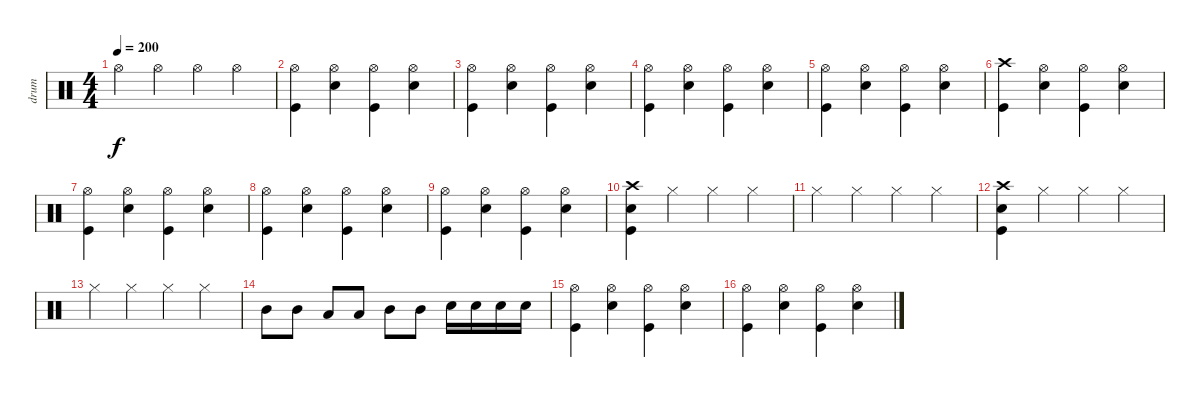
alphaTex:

\track ("drum" "drum") {instrument percussion}
\staff {score}
\articulation defaults
\ts (4 4)
\tempo 200
\clef neutral
\ks c "Hi-Hat (open)".4{dy f} "Hi-Hat (open)".4 "Hi-Hat (open)".4 "Hi-Hat (open)".4
|
("Hi-Hat (open)" "Kick (hit)").4 ("Hi-Hat (open)" "Snare (hit) 2").4 ("Hi-Hat (open)" "Kick (hit)").4 ("Hi-Hat (open)" "Snare (hit) 2").4 |
("Hi-Hat (open)" "Kick (hit)").4 ("Hi-Hat (open)" "Snare (hit) 2").4 ("Hi-Hat (open)" "Kick (hit)").4 ("Hi-Hat (open)" "Snare (hit) 2").4 |
("Hi-Hat (open)" "Kick (hit)").4 ("Hi-Hat (open)" "Snare (hit) 2").4 ("Hi-Hat (open)" "Kick (hit)").4 ("Hi-Hat (open)" "Snare (hit) 2").4 |
("Hi-Hat (open)" "Kick (hit)").4 ("Hi-Hat (open)" "Snare (hit) 2").4 ("Hi-Hat (open)" "Kick (hit)").4 ("Hi-Hat (open)" "Snare (hit) 2").4 |
("Crash high (hit)" "Kick (hit)").4 ("Hi-Hat (open)" "Snare (hit) 2").4 ("Hi-Hat (open)" "Kick (hit)").4 ("Hi-Hat (open)" "Snare (hit) 2").4 |
("Hi-Hat (open)" "Kick (hit)").4 ("Hi-Hat (open)" "Snare (hit) 2").4 ("Hi-Hat (open)" "Kick (hit)").4 ("Hi-Hat (open)" "Snare (hit) 2").4 |
("Hi-Hat (open)" "Kick (hit)").4 ("Hi-Hat (open)" "Snare (hit) 2").4 ("Hi-Hat (open)" "Kick (hit)").4 ("Hi-Hat (open)" "Snare (hit) 2").4 |
("Hi-Hat (open)" "Kick (hit)").4 ("Hi-Hat (open)" "Snare (hit) 2").4 ("Hi-Hat (open)" "Kick (hit)").4 ("Hi-Hat (open)" "Snare (hit) 2").4 |
("Crash high (hit)" "Snare (hit) 2" "Kick (hit)").4 "Hi-Hat (closed)".4 "Hi-Hat (closed)".4 "Hi-Hat (closed)".4 |
"Hi-Hat (closed)".4 "Hi-Hat (closed)".4 "Hi-Hat (closed)".4 "Hi-Hat (closed)".4 |
("Crash high (hit)" "Snare (hit) 2" "Kick (hit)").4 "Hi-Hat (closed)".4 "Hi-Hat (closed)".4 "Hi-Hat (closed)".4 |
"Hi-Hat (closed)".4 "Hi-Hat (closed)".4 "Hi-Hat (closed)".4 "Hi-Hat (closed)".4 |
"Mid Tom (hit)".8 "Mid Tom (hit)".8 "Low Tom (hit)".8 "Low Tom (hit)".8 "Mid Tom (hit)".8 "Mid Tom (hit)".8 "Snare (hit) 2".16 "Snare (hit) 2".16 "Snare (hit) 2".16 "Snare (hit) 2".16 |
("Hi-Hat (open)" "Kick (hit)").4 ("Hi-Hat (open)" "Snare (hit) 2").4 ("Hi-Hat (open)" "Kick (hit)").4 ("Hi-Hat (open)" "Snare (hit) 2").4 |
("Hi-Hat (open)" "Kick (hit)").4 ("Hi-Hat (open)" "Snare (hit) 2").4 ("Hi-Hat (open)" "Kick (hit)").4 ("Hi-Hat (open)" "Snare (hit) 2").4
